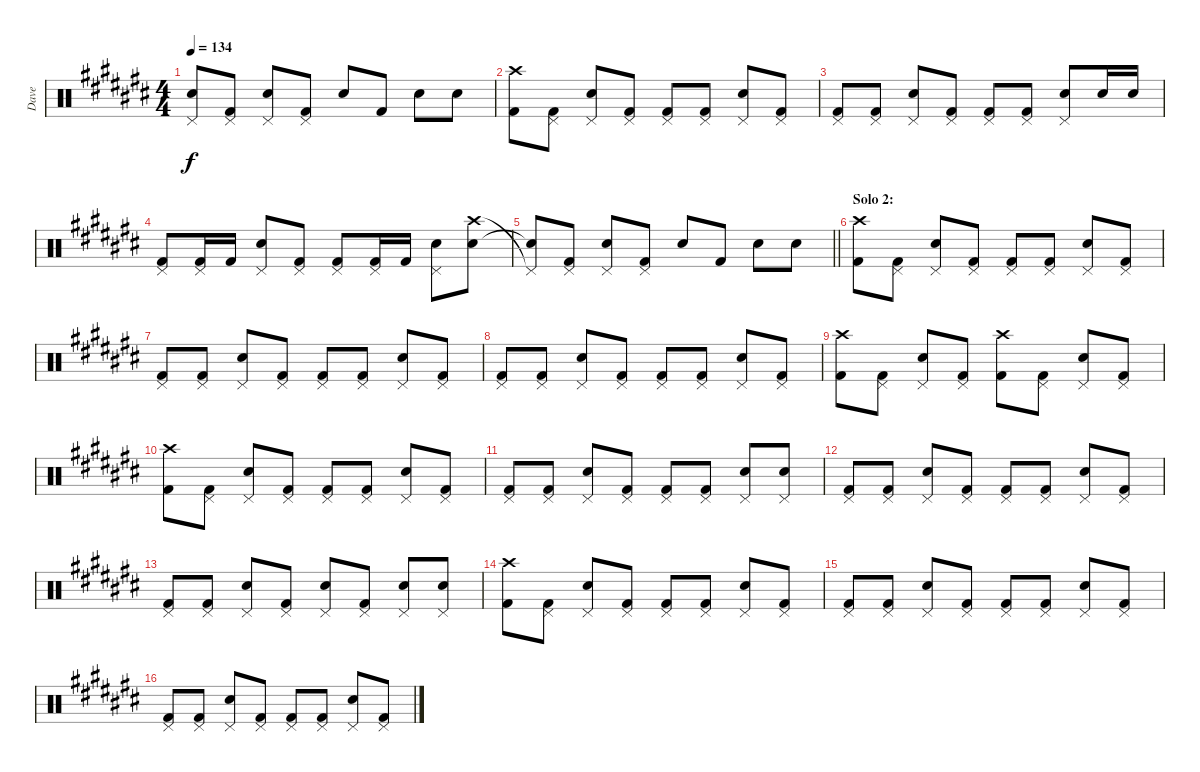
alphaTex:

\track ("Dave" "Dave") {instrument percussion}
\staff {score}
\articulation defaults
\ts (4 4)
\tempo 134
\clef neutral
\ks c#
("Pedal Hi-Hat (hit)"{t} "Snare (hit)"{t}).8{dy f} ("Pedal Hi-Hat (hit)" "Kick (hit) 2").8 ("Pedal Hi-Hat (hit)" "Snare (hit) 2").8 ("Pedal Hi-Hat (hit)" "Kick (hit) 2").8 "Snare (hit) 2".8 "Kick (hit) 2".8 "Snare (hit) 2".8 "Snare (hit) 2".8 |
("Crash high (hit)" "Kick (hit) 2").8 ("Pedal Hi-Hat (hit)" "Kick (hit) 2").8 ("Pedal Hi-Hat (hit)" "Snare (hit) 2").8 ("Pedal Hi-Hat (hit)" "Kick (hit) 2").8 ("Pedal Hi-Hat (hit)" "Kick (hit) 2").8 ("Pedal Hi-Hat (hit)" "Kick (hit) 2").8 ("Pedal Hi-Hat (hit)" "Snare (hit) 2").8 ("Pedal Hi-Hat (hit)" "Kick (hit) 2").8 |
("Pedal Hi-Hat (hit)" "Kick (hit) 2").8 ("Pedal Hi-Hat (hit)" "Kick (hit) 2").8 ("Pedal Hi-Hat (hit)" "Snare (hit) 2").8 ("Pedal Hi-Hat (hit)" "Kick (hit) 2").8 ("Pedal Hi-Hat (hit)" "Kick (hit) 2").8 ("Pedal Hi-Hat (hit)" "Kick (hit) 2").8 ("Pedal Hi-Hat (hit)" "Snare (hit) 2").8 "Snare (hit) 2".16 "Snare (hit) 2".16 |
("Pedal Hi-Hat (hit)" "Kick (hit) 2").8 ("Pedal Hi-Hat (hit)" "Kick (hit) 2").16 "Kick (hit) 2".16 ("Pedal Hi-Hat (hit)" "Snare (hit) 2").8 ("Pedal Hi-Hat (hit)" "Kick (hit) 2").8 ("Pedal Hi-Hat (hit)" "Kick (hit) 2").8 ("Pedal Hi-Hat (hit)" "Kick (hit) 2").16 "Kick (hit) 2".16 ("Pedal Hi-Hat (hit)" "Snare (hit) 2").8 ("Crash high (hit)" "Snare (hit) 2").8 |
\barLineRight lightlight
("Pedal Hi-Hat (hit)"{t} "Snare (hit)"{t}).8 ("Pedal Hi-Hat (hit)" "Kick (hit) 2").8 ("Pedal Hi-Hat (hit)" "Snare (hit) 2").8 ("Pedal Hi-Hat (hit)" "Kick (hit) 2").8 "Snare (hit) 2".8 "Kick (hit) 2".8 "Snare (hit) 2".8 "Snare (hit) 2".8 |
\section ("" "Solo 2:")
("Crash high (hit)" "Kick (hit) 2").8 ("Pedal Hi-Hat (hit)" "Kick (hit) 2").8 ("Pedal Hi-Hat (hit)" "Snare (hit) 2").8 ("Pedal Hi-Hat (hit)" "Kick (hit) 2").8 ("Pedal Hi-Hat (hit)" "Kick (hit) 2").8 ("Pedal Hi-Hat (hit)" "Kick (hit) 2").8 ("Pedal Hi-Hat (hit)" "Snare (hit) 2").8 ("Pedal Hi-Hat (hit)" "Kick (hit) 2").8 |
("Pedal Hi-Hat (hit)" "Kick (hit) 2").8 ("Pedal Hi-Hat (hit)" "Kick (hit) 2").8 ("Pedal Hi-Hat (hit)" "Snare (hit) 2").8 ("Pedal Hi-Hat (hit)" "Kick (hit) 2").8 ("Pedal Hi-Hat (hit)" "Kick (hit) 2").8 ("Pedal Hi-Hat (hit)" "Kick (hit) 2").8 ("Pedal Hi-Hat (hit)" "Snare (hit) 2").8 ("Pedal Hi-Hat (hit)" "Kick (hit) 2").8 |
("Pedal Hi-Hat (hit)" "Kick (hit) 2").8 ("Pedal Hi-Hat (hit)" "Kick (hit) 2").8 ("Pedal Hi-Hat (hit)" "Snare (hit) 2").8 ("Pedal Hi-Hat (hit)" "Kick (hit) 2").8 ("Pedal Hi-Hat (hit)" "Kick (hit) 2").8 ("Pedal Hi-Hat (hit)" "Kick (hit) 2").8 ("Pedal Hi-Hat (hit)" "Snare (hit) 2").8 ("Pedal Hi-Hat (hit)" "Kick (hit) 2").8 |
("Crash high (hit)" "Kick (hit) 2").8 ("Pedal Hi-Hat (hit)" "Kick (hit) 2").8 ("Pedal Hi-Hat (hit)" "Snare (hit) 2").8 ("Pedal Hi-Hat (hit)" "Kick (hit) 2").8 ("Crash high (hit)" "Kick (hit) 2").8 ("Pedal Hi-Hat (hit)" "Kick (hit) 2").8 ("Pedal Hi-Hat (hit)" "Snare (hit) 2").8 ("Pedal Hi-Hat (hit)" "Kick (hit) 2").8 |
("Crash high (hit)" "Kick (hit) 2").8 ("Pedal Hi-Hat (hit)" "Kick (hit) 2").8 ("Pedal Hi-Hat (hit)" "Snare (hit) 2").8 ("Pedal Hi-Hat (hit)" "Kick (hit) 2").8 ("Pedal Hi-Hat (hit)" "Kick (hit) 2").8 ("Pedal Hi-Hat (hit)" "Kick (hit) 2").8 ("Pedal Hi-Hat (hit)" "Snare (hit) 2").8 ("Pedal Hi-Hat (hit)" "Kick (hit) 2").8 |
("Pedal Hi-Hat (hit)" "Kick (hit) 2").8 ("Pedal Hi-Hat (hit)" "Kick (hit) 2").8 ("Pedal Hi-Hat (hit)" "Snare (hit) 2").8 ("Pedal Hi-Hat (hit)" "Kick (hit) 2").8 ("Pedal Hi-Hat (hit)" "Kick (hit) 2").8 ("Pedal Hi-Hat (hit)" "Kick (hit) 2").8 ("Pedal Hi-Hat (hit)" "Snare (hit) 2").8 ("Pedal Hi-Hat (hit)" "Snare (hit) 2").8 |
("Pedal Hi-Hat (hit)" "Kick (hit) 2").8 ("Pedal Hi-Hat (hit)" "Kick (hit) 2").8 ("Pedal Hi-Hat (hit)" "Snare (hit) 2").8 ("Pedal Hi-Hat (hit)" "Kick (hit) 2").8 ("Pedal Hi-Hat (hit)" "Kick (hit) 2").8 ("Pedal Hi-Hat (hit)" "Kick (hit) 2").8 ("Pedal Hi-Hat (hit)" "Snare (hit) 2").8 ("Pedal Hi-Hat (hit)" "Kick (hit) 2").8 |
("Pedal Hi-Hat (hit)" "Kick (hit) 2").8 ("Pedal Hi-Hat (hit)" "Kick (hit) 2").8 ("Pedal Hi-Hat (hit)" "Snare (hit) 2").8 ("Pedal Hi-Hat (hit)" "Kick (hit) 2").8 ("Pedal Hi-Hat (hit)" "Snare (hit) 2").8 ("Pedal Hi-Hat (hit)" "Kick (hit) 2").8 ("Pedal Hi-Hat (hit)" "Snare (hit) 2").8 ("Pedal Hi-Hat (hit)" "Snare (hit) 2").8 |
("Crash high (hit)" "Kick (hit) 2").8 ("Pedal Hi-Hat (hit)" "Kick (hit) 2").8 ("Pedal Hi-Hat (hit)" "Snare (hit) 2").8 ("Pedal Hi-Hat (hit)" "Kick (hit) 2").8 ("Pedal Hi-Hat (hit)" "Kick (hit) 2").8 ("Pedal Hi-Hat (hit)" "Kick (hit) 2").8 ("Pedal Hi-Hat (hit)" "Snare (hit) 2").8 ("Pedal Hi-Hat (hit)" "Kick (hit) 2").8 |
("Pedal Hi-Hat (hit)" "Kick (hit) 2").8 ("Pedal Hi-Hat (hit)" "Kick (hit) 2").8 ("Pedal Hi-Hat (hit)" "Snare (hit) 2").8 ("Pedal Hi-Hat (hit)" "Kick (hit) 2").8 ("Pedal Hi-Hat (hit)" "Kick (hit) 2").8 ("Pedal Hi-Hat (hit)" "Kick (hit) 2").8 ("Pedal Hi-Hat (hit)" "Snare (hit) 2").8 ("Pedal Hi-Hat (hit)" "Kick (hit) 2").8 |
("Pedal Hi-Hat (hit)" "Kick (hit) 2").8 ("Pedal Hi-Hat (hit)" "Kick (hit) 2").8 ("Pedal Hi-Hat (hit)" "Snare (hit) 2").8 ("Pedal Hi-Hat (hit)" "Kick (hit) 2").8 ("Pedal Hi-Hat (hit)" "Kick (hit) 2").8 ("Pedal Hi-Hat (hit)" "Kick (hit) 2").8 ("Pedal Hi-Hat (hit)" "Snare (hit) 2").8 ("Pedal Hi-Hat (hit)" "Kick (hit) 2").8
